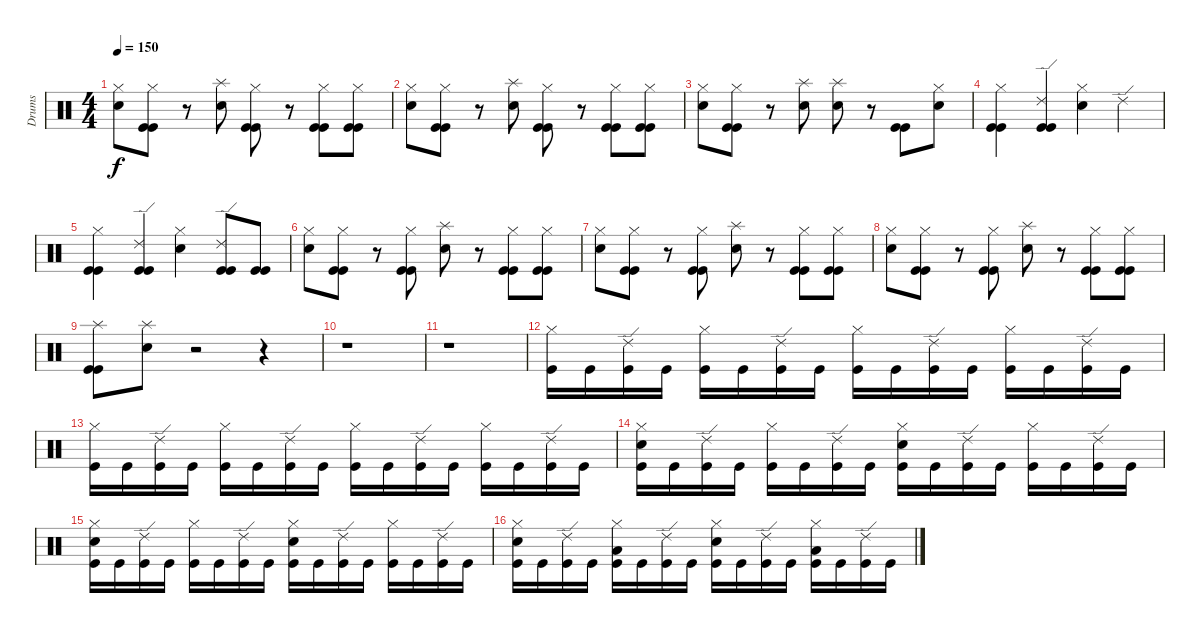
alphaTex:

\track ("Drums" "Drums") {instrument percussion}
\staff {score}
\articulation defaults
\ts (4 4)
\tempo 150
\clef neutral
\ks c
("Hi-Hat (closed)" "Snare (hit) 2").8{dy f} ("Hi-Hat (closed)" "Kick (hit)" "Kick (hit)").8 r.8 ("Splash (hit)" "Snare (hit) 2").8 ("Hi-Hat (closed)" "Kick (hit)" "Kick (hit)").8 r.8 ("Hi-Hat (closed)" "Kick (hit)" "Kick (hit)").8 ("Hi-Hat (closed)" "Kick (hit)" "Kick (hit)").8 |
("Hi-Hat (closed)" "Snare (hit) 2").8 ("Hi-Hat (closed)" "Kick (hit)" "Kick (hit)").8 r.8 ("Splash (hit)" "Snare (hit) 2").8 ("Hi-Hat (closed)" "Kick (hit)" "Kick (hit)").8 r.8 ("Hi-Hat (closed)" "Kick (hit)" "Kick (hit)").8 ("Hi-Hat (closed)" "Kick (hit)" "Kick (hit)").8 |
("Hi-Hat (closed)" "Snare (hit) 2").8 ("Hi-Hat (closed)" "Kick (hit)" "Kick (hit)").8 r.8 ("Splash (hit)" "Snare (hit) 2").8 ("Splash (hit)" "Snare (hit) 2").8 r.8 ("Kick (hit)" "Kick (hit)").8 ("Hi-Hat (closed)" "Snare (hit) 2").8 |
("Hi-Hat (closed)" "Kick (hit)" "Kick (hit)").4 ("Ride (edge) 2" "Kick (hit)" "Kick (hit)").4 ("Hi-Hat (closed)" "Snare (hit) 2").4 "Ride (edge) 2".4 |
("Hi-Hat (closed)" "Kick (hit)" "Kick (hit)").4 ("Ride (edge) 2" "Kick (hit)" "Kick (hit)").4 ("Hi-Hat (closed)" "Snare (hit) 2").4 ("Ride (edge) 2" "Kick (hit)" "Kick (hit)").8 ("Kick (hit)" "Kick (hit)").8 |
("Hi-Hat (closed)" "Snare (hit) 2").8 ("Hi-Hat (closed)" "Kick (hit)" "Kick (hit)").8 r.8 ("Hi-Hat (closed)" "Kick (hit)" "Kick (hit)").8 ("Splash (hit)" "Snare (hit) 2").8 r.8 ("Hi-Hat (closed)" "Kick (hit)" "Kick (hit)").8 ("Hi-Hat (closed)" "Kick (hit)" "Kick (hit)").8 |
("Hi-Hat (closed)" "Snare (hit) 2").8 ("Hi-Hat (closed)" "Kick (hit)" "Kick (hit)").8 r.8 ("Hi-Hat (closed)" "Kick (hit)" "Kick (hit)").8 ("Splash (hit)" "Snare (hit) 2").8 r.8 ("Hi-Hat (closed)" "Kick (hit)" "Kick (hit)").8 ("Hi-Hat (closed)" "Kick (hit)" "Kick (hit)").8 |
("Hi-Hat (closed)" "Snare (hit) 2").8 ("Hi-Hat (closed)" "Kick (hit)" "Kick (hit)").8 r.8 ("Hi-Hat (closed)" "Kick (hit)" "Kick (hit)").8 ("Splash (hit)" "Snare (hit) 2").8 r.8 ("Hi-Hat (closed)" "Kick (hit)" "Kick (hit)").8 ("Hi-Hat (closed)" "Kick (hit)" "Kick (hit)").8 |
("Splash (hit)" "Kick (hit)" "Kick (hit)").8 ("Splash (hit)" "Snare (hit) 2").8 r.2 r.4 |
r.1 |
r.1 |
("Hi-Hat (closed)" "Kick (hit)").16 "Kick (hit)".16 ("Ride (edge) 2" "Kick (hit)").16 "Kick (hit)".16 ("Hi-Hat (closed)" "Kick (hit)").16 "Kick (hit)".16 ("Ride (edge) 2" "Kick (hit)").16 "Kick (hit)".16 ("Hi-Hat (closed)" "Kick (hit)").16 "Kick (hit)".16 ("Ride (edge) 2" "Kick (hit)").16 "Kick (hit)".16 ("Hi-Hat (closed)" "Kick (hit)").16 "Kick (hit)".16 ("Ride (edge) 2" "Kick (hit)").16 "Kick (hit)".16 |
("Hi-Hat (closed)" "Kick (hit)").16 "Kick (hit)".16 ("Ride (edge) 2" "Kick (hit)").16 "Kick (hit)".16 ("Hi-Hat (closed)" "Kick (hit)").16 "Kick (hit)".16 ("Ride (edge) 2" "Kick (hit)").16 "Kick (hit)".16 ("Hi-Hat (closed)" "Kick (hit)").16 "Kick (hit)".16 ("Ride (edge) 2" "Kick (hit)").16 "Kick (hit)".16 ("Hi-Hat (closed)" "Kick (hit)").16 "Kick (hit)".16 ("Ride (edge) 2" "Kick (hit)").16 "Kick (hit)".16 |
("Hi-Hat (closed)" "Snare (hit) 2" "Kick (hit)").16 "Kick (hit)".16 ("Ride (edge) 2" "Kick (hit)").16 "Kick (hit)".16 ("Hi-Hat (closed)" "Kick (hit)").16 "Kick (hit)".16 ("Ride (edge) 2" "Kick (hit)").16 "Kick (hit)".16 ("Hi-Hat (closed)" "Snare (hit) 2" "Kick (hit)").16 "Kick (hit)".16 ("Ride (edge) 2" "Kick (hit)").16 "Kick (hit)".16 ("Hi-Hat (closed)" "Kick (hit)").16 "Kick (hit)".16 ("Ride (edge) 2" "Kick (hit)").16 "Kick (hit)".16 |
("Hi-Hat (closed)" "Snare (hit) 2" "Kick (hit)").16 "Kick (hit)".16 ("Ride (edge) 2" "Kick (hit)").16 "Kick (hit)".16 ("Hi-Hat (closed)" "Kick (hit)").16 "Kick (hit)".16 ("Ride (edge) 2" "Kick (hit)").16 "Kick (hit)".16 ("Hi-Hat (closed)" "Snare (hit) 2" "Kick (hit)").16 "Kick (hit)".16 ("Ride (edge) 2" "Kick (hit)").16 "Kick (hit)".16 ("Hi-Hat (closed)" "Kick (hit)").16 "Kick (hit)".16 ("Ride (edge) 2" "Kick (hit)").16 "Kick (hit)".16 |
("Hi-Hat (closed)" "Snare (hit) 2" "Kick (hit)").16 "Kick (hit)".16 ("Ride (edge) 2" "Kick (hit)").16 "Kick (hit)".16 ("Hi-Hat (closed)" "Low Tom (hit)" "Kick (hit)").16 "Kick (hit)".16 ("Ride (edge) 2" "Kick (hit)").16 "Kick (hit)".16 ("Hi-Hat (closed)" "Snare (hit) 2" "Kick (hit)").16 "Kick (hit)".16 ("Ride (edge) 2" "Kick (hit)").16 "Kick (hit)".16 ("Hi-Hat (closed)" "Low Tom (hit)" "Kick (hit)").16 "Kick (hit)".16 ("Ride (edge) 2" "Kick (hit)").16 "Kick (hit)".16
